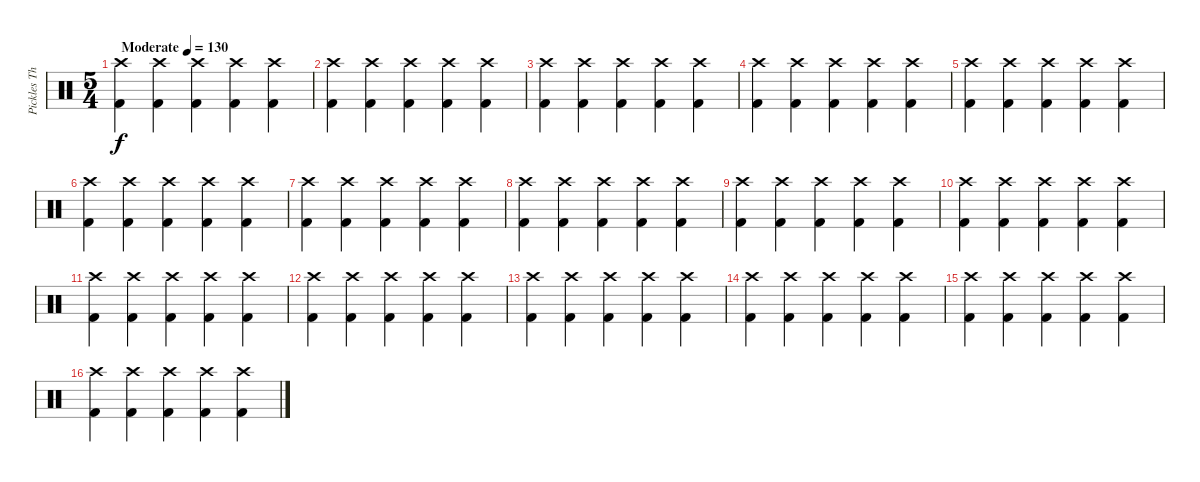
\track ("Pickles The Drummer" "Pickles Th") {instrument percussion}
\staff {score}
\articulation defaults
\ts (5 4)
\tempo (130 "Moderate")
\clef neutral
\ks c
("Crash high (hit)" "Kick (hit) 2").4{dy f} ("Crash high (hit)" "Kick (hit) 2").4 ("Crash high (hit)" "Kick (hit) 2").4 ("Crash high (hit)" "Kick (hit) 2").4 ("Crash high (hit)" "Kick (hit) 2").4 |
("Crash high (hit)" "Kick (hit) 2").4 ("Crash high (hit)" "Kick (hit) 2").4 ("Crash high (hit)" "Kick (hit) 2").4 ("Crash high (hit)" "Kick (hit) 2").4 ("Crash high (hit)" "Kick (hit) 2").4 |
("Crash high (hit)" "Kick (hit) 2").4 ("Crash high (hit)" "Kick (hit) 2").4 ("Crash high (hit)" "Kick (hit) 2").4 ("Crash high (hit)" "Kick (hit) 2").4 ("Crash high (hit)" "Kick (hit) 2").4 |
("Crash high (hit)" "Kick (hit) 2").4 ("Crash high (hit)" "Kick (hit) 2").4 ("Crash high (hit)" "Kick (hit) 2").4 ("Crash high (hit)" "Kick (hit) 2").4 ("Crash high (hit)" "Kick (hit) 2").4 |
("Crash high (hit)" "Kick (hit) 2").4 ("Crash high (hit)" "Kick (hit) 2").4 ("Crash high (hit)" "Kick (hit) 2").4 ("Crash high (hit)" "Kick (hit) 2").4 ("Crash high (hit)" "Kick (hit) 2").4 |
("Crash high (hit)" "Kick (hit) 2").4 ("Crash high (hit)" "Kick (hit) 2").4 ("Crash high (hit)" "Kick (hit) 2").4 ("Crash high (hit)" "Kick (hit) 2").4 ("Crash high (hit)" "Kick (hit) 2").4 |
("Crash high (hit)" "Kick (hit) 2").4 ("Crash high (hit)" "Kick (hit) 2").4 ("Crash high (hit)" "Kick (hit) 2").4 ("Crash high (hit)" "Kick (hit) 2").4 ("Crash high (hit)" "Kick (hit) 2").4 |
("Crash high (hit)" "Kick (hit) 2").4 ("Crash high (hit)" "Kick (hit) 2").4 ("Crash high (hit)" "Kick (hit) 2").4 ("Crash high (hit)" "Kick (hit) 2").4 ("Crash high (hit)" "Kick (hit) 2").4 |
("Crash high (hit)" "Kick (hit) 2").4 ("Crash high (hit)" "Kick (hit) 2").4 ("Crash high (hit)" "Kick (hit) 2").4 ("Crash high (hit)" "Kick (hit) 2").4 ("Crash high (hit)" "Kick (hit) 2").4 |
("Crash high (hit)" "Kick (hit) 2").4 ("Crash high (hit)" "Kick (hit) 2").4 ("Crash high (hit)" "Kick (hit) 2").4 ("Crash high (hit)" "Kick (hit) 2").4 ("Crash high (hit)" "Kick (hit) 2").4 |
("Crash high (hit)" "Kick (hit) 2").4 ("Crash high (hit)" "Kick (hit) 2").4 ("Crash high (hit)" "Kick (hit) 2").4 ("Crash high (hit)" "Kick (hit) 2").4 ("Crash high (hit)" "Kick (hit) 2").4 |
("Crash high (hit)" "Kick (hit) 2").4 ("Crash high (hit)" "Kick (hit) 2").4 ("Crash high (hit)" "Kick (hit) 2").4 ("Crash high (hit)" "Kick (hit) 2").4 ("Crash high (hit)" "Kick (hit) 2").4 |
("Crash high (hit)" "Kick (hit) 2").4 ("Crash high (hit)" "Kick (hit) 2").4 ("Crash high (hit)" "Kick (hit) 2").4 ("Crash high (hit)" "Kick (hit) 2").4 ("Crash high (hit)" "Kick (hit) 2").4 |
("Crash high (hit)" "Kick (hit) 2").4 ("Crash high (hit)" "Kick (hit) 2").4 ("Crash high (hit)" "Kick (hit) 2").4 ("Crash high (hit)" "Kick (hit) 2").4 ("Crash high (hit)" "Kick (hit) 2").4 |
("Crash high (hit)" "Kick (hit) 2").4 ("Crash high (hit)" "Kick (hit) 2").4 ("Crash high (hit)" "Kick (hit) 2").4 ("Crash high (hit)" "Kick (hit) 2").4 ("Crash high (hit)" "Kick (hit) 2").4 |
("Crash high (hit)" "Kick (hit) 2").4 ("Crash high (hit)" "Kick (hit) 2").4 ("Crash high (hit)" "Kick (hit) 2").4 ("Crash high (hit)" "Kick (hit) 2").4 ("Crash high (hit)" "Kick (hit) 2").4
